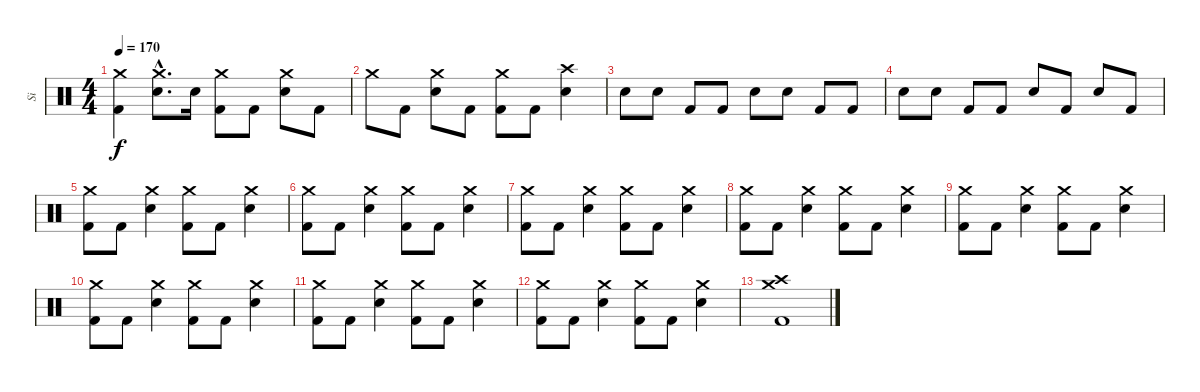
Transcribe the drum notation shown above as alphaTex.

\track ("Si" "Si") {instrument percussion}
\staff {score}
\articulation defaults
\ts (4 4)
\tempo 170
\clef neutral
\ks c
("Crash medium (hit)" "Kick (hit) 2").4{dy f} ("Crash medium (hit)"{hac} "Electric Snare (hit)"{hac}).8{d} "Electric Snare (hit)".16 ("Crash medium (hit)" "Kick (hit) 2").8 "Kick (hit) 2".8 ("Crash medium (hit)" "Electric Snare (hit)").8 "Kick (hit) 2".8 |
"Crash medium (hit)".8 "Kick (hit) 2".8 ("Crash medium (hit)" "Electric Snare (hit)").8 "Kick (hit) 2".8 ("Crash medium (hit)" "Kick (hit) 2").8 "Kick (hit) 2".8 ("Crash high (hit)" "Electric Snare (hit)").4 |
"Electric Snare (hit)".8 "Electric Snare (hit)".8 "Kick (hit) 2".8 "Kick (hit) 2".8 "Electric Snare (hit)".8 "Electric Snare (hit)".8 "Kick (hit) 2".8 "Kick (hit) 2".8 |
"Electric Snare (hit)".8 "Electric Snare (hit)".8 "Kick (hit) 2".8 "Kick (hit) 2".8 "Electric Snare (hit)".8 "Kick (hit) 2".8 "Electric Snare (hit)".8 "Kick (hit) 2".8 |
("Crash medium (hit)" "Kick (hit) 2").8 "Kick (hit) 2".8 ("Crash medium (hit)" "Electric Snare (hit)").4 ("Crash medium (hit)" "Kick (hit) 2").8 "Kick (hit) 2".8 ("Crash medium (hit)" "Electric Snare (hit)").4 |
("Crash medium (hit)" "Kick (hit) 2").8 "Kick (hit) 2".8 ("Crash medium (hit)" "Electric Snare (hit)").4 ("Crash medium (hit)" "Kick (hit) 2").8 "Kick (hit) 2".8 ("Crash medium (hit)" "Electric Snare (hit)").4 |
("Crash medium (hit)" "Kick (hit) 2").8 "Kick (hit) 2".8 ("Crash medium (hit)" "Electric Snare (hit)").4 ("Crash medium (hit)" "Kick (hit) 2").8 "Kick (hit) 2".8 ("Crash medium (hit)" "Electric Snare (hit)").4 |
("Crash medium (hit)" "Kick (hit) 2").8 "Kick (hit) 2".8 ("Crash medium (hit)" "Electric Snare (hit)").4 ("Crash medium (hit)" "Kick (hit) 2").8 "Kick (hit) 2".8 ("Crash medium (hit)" "Electric Snare (hit)").4 |
("Crash medium (hit)" "Kick (hit) 2").8 "Kick (hit) 2".8 ("Crash medium (hit)" "Electric Snare (hit)").4 ("Crash medium (hit)" "Kick (hit) 2").8 "Kick (hit) 2".8 ("Crash medium (hit)" "Electric Snare (hit)").4 |
("Crash medium (hit)" "Kick (hit) 2").8 "Kick (hit) 2".8 ("Crash medium (hit)" "Electric Snare (hit)").4 ("Crash medium (hit)" "Kick (hit) 2").8 "Kick (hit) 2".8 ("Crash medium (hit)" "Electric Snare (hit)").4 |
("Crash medium (hit)" "Kick (hit) 2").8 "Kick (hit) 2".8 ("Crash medium (hit)" "Electric Snare (hit)").4 ("Crash medium (hit)" "Kick (hit) 2").8 "Kick (hit) 2".8 ("Crash medium (hit)" "Electric Snare (hit)").4 |
("Crash medium (hit)" "Kick (hit) 2").8 "Kick (hit) 2".8 ("Crash medium (hit)" "Electric Snare (hit)").4 ("Crash medium (hit)" "Kick (hit) 2").8 "Kick (hit) 2".8 ("Crash medium (hit)" "Electric Snare (hit)").4 |
("Crash medium (hit)" "Crash high (hit)" "Kick (hit) 2").1
